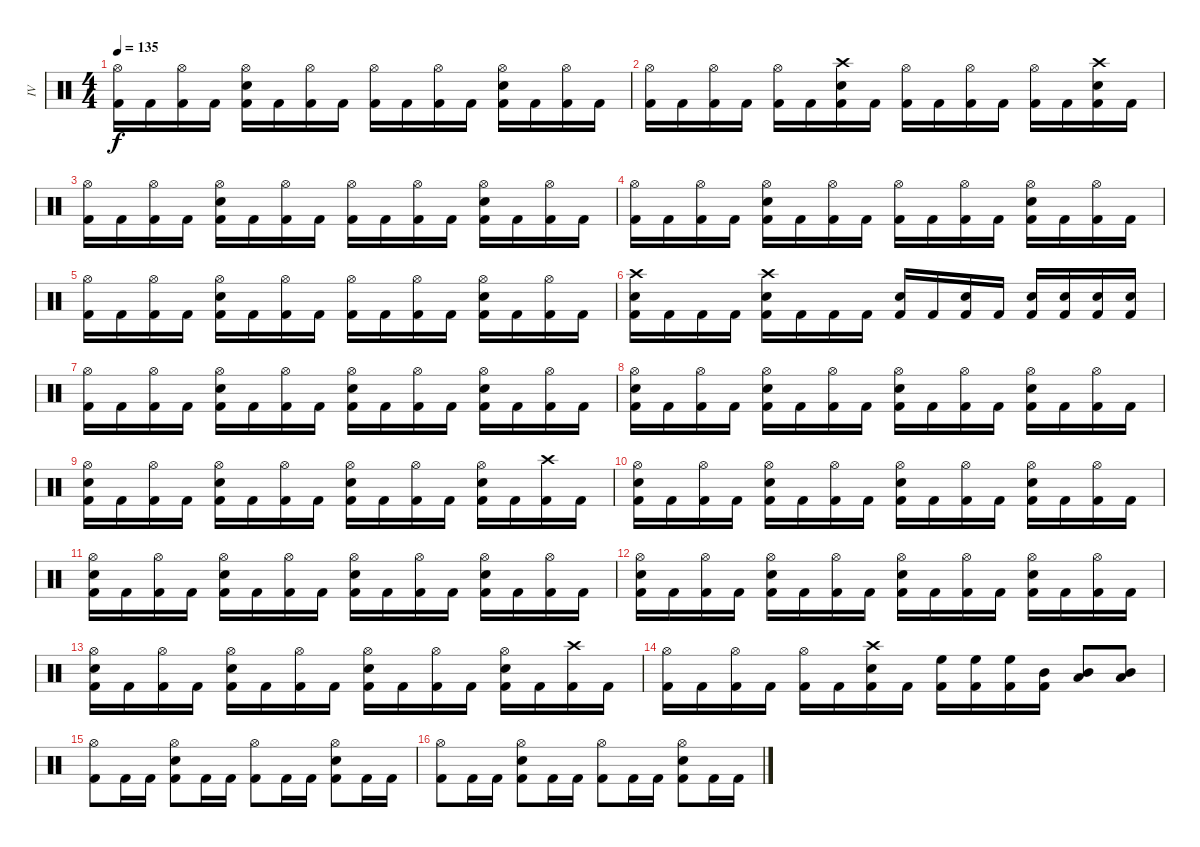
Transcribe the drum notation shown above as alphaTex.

\track ("IV" "IV") {instrument percussion}
\staff {score}
\articulation defaults
\ts (4 4)
\tempo 135
\clef neutral
\ks c
("Hi-Hat (open)" "Kick (hit) 2").16{dy f} "Kick (hit) 2".16 ("Hi-Hat (open)" "Kick (hit) 2").16 "Kick (hit) 2".16 ("Hi-Hat (open)" "Snare (hit) 2" "Kick (hit) 2").16 "Kick (hit) 2".16 ("Hi-Hat (open)" "Kick (hit) 2").16 "Kick (hit) 2".16 ("Hi-Hat (open)" "Kick (hit) 2").16 "Kick (hit) 2".16 ("Hi-Hat (open)" "Kick (hit) 2").16 "Kick (hit) 2".16 ("Hi-Hat (open)" "Snare (hit) 2" "Kick (hit) 2").16 "Kick (hit) 2".16 ("Hi-Hat (open)" "Kick (hit) 2").16 "Kick (hit) 2".16 |
("Hi-Hat (open)" "Kick (hit) 2").16 "Kick (hit) 2".16 ("Hi-Hat (open)" "Kick (hit) 2").16 "Kick (hit) 2".16 ("Hi-Hat (open)" "Kick (hit) 2").16 "Kick (hit) 2".16 ("Crash high (hit)" "Snare (hit) 2" "Kick (hit) 2").16 "Kick (hit) 2".16 ("Hi-Hat (open)" "Kick (hit) 2").16 "Kick (hit) 2".16 ("Hi-Hat (open)" "Kick (hit) 2").16 "Kick (hit) 2".16 ("Hi-Hat (open)" "Kick (hit) 2").16 "Kick (hit) 2".16 ("Crash high (hit)" "Snare (hit) 2" "Kick (hit) 2").16 "Kick (hit) 2".16 |
("Hi-Hat (open)" "Kick (hit) 2").16 "Kick (hit) 2".16 ("Hi-Hat (open)" "Kick (hit) 2").16 "Kick (hit) 2".16 ("Hi-Hat (open)" "Snare (hit) 2" "Kick (hit) 2").16 "Kick (hit) 2".16 ("Hi-Hat (open)" "Kick (hit) 2").16 "Kick (hit) 2".16 ("Hi-Hat (open)" "Kick (hit) 2").16 "Kick (hit) 2".16 ("Hi-Hat (open)" "Kick (hit) 2").16 "Kick (hit) 2".16 ("Hi-Hat (open)" "Snare (hit) 2" "Kick (hit) 2").16 "Kick (hit) 2".16 ("Hi-Hat (open)" "Kick (hit) 2").16 "Kick (hit) 2".16 |
("Hi-Hat (open)" "Kick (hit) 2").16 "Kick (hit) 2".16 ("Hi-Hat (open)" "Kick (hit) 2").16 "Kick (hit) 2".16 ("Hi-Hat (open)" "Snare (hit) 2" "Kick (hit) 2").16 "Kick (hit) 2".16 ("Hi-Hat (open)" "Kick (hit) 2").16 "Kick (hit) 2".16 ("Hi-Hat (open)" "Kick (hit) 2").16 "Kick (hit) 2".16 ("Hi-Hat (open)" "Kick (hit) 2").16 "Kick (hit) 2".16 ("Hi-Hat (open)" "Snare (hit) 2" "Kick (hit) 2").16 "Kick (hit) 2".16 ("Hi-Hat (open)" "Kick (hit) 2").16 "Kick (hit) 2".16 |
("Hi-Hat (open)" "Kick (hit) 2").16 "Kick (hit) 2".16 ("Hi-Hat (open)" "Kick (hit) 2").16 "Kick (hit) 2".16 ("Hi-Hat (open)" "Snare (hit) 2" "Kick (hit) 2").16 "Kick (hit) 2".16 ("Hi-Hat (open)" "Kick (hit) 2").16 "Kick (hit) 2".16 ("Hi-Hat (open)" "Kick (hit) 2").16 "Kick (hit) 2".16 ("Hi-Hat (open)" "Kick (hit) 2").16 "Kick (hit) 2".16 ("Hi-Hat (open)" "Snare (hit) 2" "Kick (hit) 2").16 "Kick (hit) 2".16 ("Hi-Hat (open)" "Kick (hit) 2").16 "Kick (hit) 2".16 |
("Crash high (hit)" "Snare (hit) 2" "Kick (hit) 2").16 "Kick (hit) 2".16 "Kick (hit) 2".16 "Kick (hit) 2".16 ("Crash high (hit)" "Snare (hit) 2" "Kick (hit) 2").16 "Kick (hit) 2".16 "Kick (hit) 2".16 "Kick (hit) 2".16 ("Snare (hit) 2" "Kick (hit) 2").16 "Kick (hit) 2".16 ("Snare (hit) 2" "Kick (hit) 2").16 "Kick (hit) 2".16 ("Snare (hit) 2" "Kick (hit) 2").16 ("Snare (hit) 2" "Kick (hit) 2").16 ("Snare (hit) 2" "Kick (hit) 2").16 ("Snare (hit) 2" "Kick (hit) 2").16 |
("Hi-Hat (open)" "Kick (hit) 2").16 "Kick (hit) 2".16 ("Hi-Hat (open)" "Kick (hit) 2").16 "Kick (hit) 2".16 ("Hi-Hat (open)" "Snare (hit) 2" "Kick (hit) 2").16 "Kick (hit) 2".16 ("Hi-Hat (open)" "Kick (hit) 2").16 "Kick (hit) 2".16 ("Hi-Hat (open)" "Snare (hit) 2" "Kick (hit) 2").16 "Kick (hit) 2".16 ("Hi-Hat (open)" "Kick (hit) 2").16 "Kick (hit) 2".16 ("Hi-Hat (open)" "Snare (hit) 2" "Kick (hit) 2").16 "Kick (hit) 2".16 ("Hi-Hat (open)" "Kick (hit) 2").16 "Kick (hit) 2".16 |
("Hi-Hat (open)" "Snare (hit) 2" "Kick (hit) 2").16 "Kick (hit) 2".16 ("Hi-Hat (open)" "Kick (hit) 2").16 "Kick (hit) 2".16 ("Hi-Hat (open)" "Snare (hit) 2" "Kick (hit) 2").16 "Kick (hit) 2".16 ("Hi-Hat (open)" "Kick (hit) 2").16 "Kick (hit) 2".16 ("Hi-Hat (open)" "Snare (hit) 2" "Kick (hit) 2").16 "Kick (hit) 2".16 ("Hi-Hat (open)" "Kick (hit) 2").16 "Kick (hit) 2".16 ("Hi-Hat (open)" "Snare (hit) 2" "Kick (hit) 2").16 "Kick (hit) 2".16 ("Hi-Hat (open)" "Kick (hit) 2").16 "Kick (hit) 2".16 |
("Hi-Hat (open)" "Snare (hit) 2" "Kick (hit) 2").16 "Kick (hit) 2".16 ("Hi-Hat (open)" "Kick (hit) 2").16 "Kick (hit) 2".16 ("Hi-Hat (open)" "Snare (hit) 2" "Kick (hit) 2").16 "Kick (hit) 2".16 ("Hi-Hat (open)" "Kick (hit) 2").16 "Kick (hit) 2".16 ("Hi-Hat (open)" "Snare (hit) 2" "Kick (hit) 2").16 "Kick (hit) 2".16 ("Hi-Hat (open)" "Kick (hit) 2").16 "Kick (hit) 2".16 ("Hi-Hat (open)" "Snare (hit) 2" "Kick (hit) 2").16 "Kick (hit) 2".16 ("Crash high (hit)" "Kick (hit) 2").16 "Kick (hit) 2".16 |
("Hi-Hat (open)" "Snare (hit) 2" "Kick (hit) 2").16 "Kick (hit) 2".16 ("Hi-Hat (open)" "Kick (hit) 2").16 "Kick (hit) 2".16 ("Hi-Hat (open)" "Snare (hit) 2" "Kick (hit) 2").16 "Kick (hit) 2".16 ("Hi-Hat (open)" "Kick (hit) 2").16 "Kick (hit) 2".16 ("Hi-Hat (open)" "Snare (hit) 2" "Kick (hit) 2").16 "Kick (hit) 2".16 ("Hi-Hat (open)" "Kick (hit) 2").16 "Kick (hit) 2".16 ("Hi-Hat (open)" "Snare (hit) 2" "Kick (hit) 2").16 "Kick (hit) 2".16 ("Hi-Hat (open)" "Kick (hit) 2").16 "Kick (hit) 2".16 |
("Hi-Hat (open)" "Snare (hit) 2" "Kick (hit) 2").16 "Kick (hit) 2".16 ("Hi-Hat (open)" "Kick (hit) 2").16 "Kick (hit) 2".16 ("Hi-Hat (open)" "Snare (hit) 2" "Kick (hit) 2").16 "Kick (hit) 2".16 ("Hi-Hat (open)" "Kick (hit) 2").16 "Kick (hit) 2".16 ("Hi-Hat (open)" "Snare (hit) 2" "Kick (hit) 2").16 "Kick (hit) 2".16 ("Hi-Hat (open)" "Kick (hit) 2").16 "Kick (hit) 2".16 ("Hi-Hat (open)" "Snare (hit) 2" "Kick (hit) 2").16 "Kick (hit) 2".16 ("Hi-Hat (open)" "Kick (hit) 2").16 "Kick (hit) 2".16 |
("Hi-Hat (open)" "Snare (hit) 2" "Kick (hit) 2").16 "Kick (hit) 2".16 ("Hi-Hat (open)" "Kick (hit) 2").16 "Kick (hit) 2".16 ("Hi-Hat (open)" "Snare (hit) 2" "Kick (hit) 2").16 "Kick (hit) 2".16 ("Hi-Hat (open)" "Kick (hit) 2").16 "Kick (hit) 2".16 ("Hi-Hat (open)" "Snare (hit) 2" "Kick (hit) 2").16 "Kick (hit) 2".16 ("Hi-Hat (open)" "Kick (hit) 2").16 "Kick (hit) 2".16 ("Hi-Hat (open)" "Snare (hit) 2" "Kick (hit) 2").16 "Kick (hit) 2".16 ("Hi-Hat (open)" "Kick (hit) 2").16 "Kick (hit) 2".16 |
("Hi-Hat (open)" "Snare (hit) 2" "Kick (hit) 2").16 "Kick (hit) 2".16 ("Hi-Hat (open)" "Kick (hit) 2").16 "Kick (hit) 2".16 ("Hi-Hat (open)" "Snare (hit) 2" "Kick (hit) 2").16 "Kick (hit) 2".16 ("Hi-Hat (open)" "Kick (hit) 2").16 "Kick (hit) 2".16 ("Hi-Hat (open)" "Snare (hit) 2" "Kick (hit) 2").16 "Kick (hit) 2".16 ("Hi-Hat (open)" "Kick (hit) 2").16 "Kick (hit) 2".16 ("Hi-Hat (open)" "Snare (hit) 2" "Kick (hit) 2").16 "Kick (hit) 2".16 ("Crash high (hit)" "Kick (hit) 2").16 "Kick (hit) 2".16 |
("Hi-Hat (open)" "Kick (hit) 2").16 "Kick (hit) 2".16 ("Hi-Hat (open)" "Kick (hit) 2").16 "Kick (hit) 2".16 ("Hi-Hat (open)" "Kick (hit) 2").16 "Kick (hit) 2".16 ("Crash high (hit)" "Snare (hit) 2" "Kick (hit) 2").16 "Kick (hit) 2".16 ("High Floor Tom (hit)" "Kick (hit) 2").16 ("High Floor Tom (hit)" "Kick (hit) 2").16 ("High Floor Tom (hit)" "Kick (hit) 2").16 ("Mid Tom (hit)" "Kick (hit) 2").16 ("Mid Tom (hit)" "Low Tom (hit)").8 ("Mid Tom (hit)" "Low Tom (hit)").8 |
("Hi-Hat (open)" "Kick (hit) 2").8 "Kick (hit) 2".16 "Kick (hit) 2".16 ("Hi-Hat (open)" "Snare (hit) 2" "Kick (hit) 2").8 "Kick (hit) 2".16 "Kick (hit) 2".16 ("Hi-Hat (open)" "Kick (hit) 2").8 "Kick (hit) 2".16 "Kick (hit) 2".16 ("Hi-Hat (open)" "Snare (hit) 2" "Kick (hit) 2").8 "Kick (hit) 2".16 "Kick (hit) 2".16 |
("Hi-Hat (open)" "Kick (hit) 2").8 "Kick (hit) 2".16 "Kick (hit) 2".16 ("Hi-Hat (open)" "Snare (hit) 2" "Kick (hit) 2").8 "Kick (hit) 2".16 "Kick (hit) 2".16 ("Hi-Hat (open)" "Kick (hit) 2").8 "Kick (hit) 2".16 "Kick (hit) 2".16 ("Hi-Hat (open)" "Snare (hit) 2" "Kick (hit) 2").8 "Kick (hit) 2".16 "Kick (hit) 2".16
